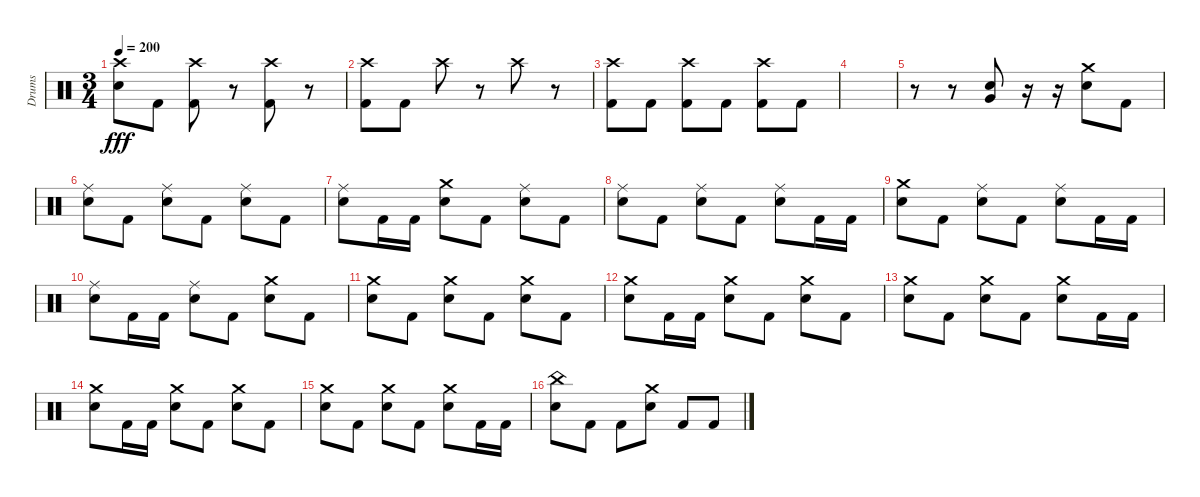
\track ("Drums" "Drums") {instrument percussion}
\staff {score}
\articulation defaults
\ts (3 4)
\tempo 200
\clef neutral
\ks c
("Crash high (hit)" "Snare (hit) 2").8{dy fff} "Kick (hit) 2".8 ("Crash high (hit)" "Kick (hit) 2").8 r.8 ("Crash high (hit)" "Kick (hit) 2").8 r.8 |
("Crash high (hit)" "Kick (hit) 2").8 "Kick (hit) 2".8 "Crash high (hit)".8 r.8 "Crash high (hit)".8 r.8 |
("Crash high (hit)" "Kick (hit) 2").8 "Kick (hit) 2".8 ("Crash high (hit)" "Kick (hit) 2").8 "Kick (hit) 2".8 ("Crash high (hit)" "Kick (hit) 2").8 "Kick (hit) 2".8 |
|
r.8 r.8 ("Very Low Tom (hit)" "Snare (hit) 2").8 r.16 r.16 ("Crash medium (hit)" "Snare (hit) 2").8 "Kick (hit) 2".8 |
("Ride (middle)" "Snare (hit) 2").8 "Kick (hit) 2".8 ("Ride (middle)" "Snare (hit) 2").8 "Kick (hit) 2".8 ("Ride (middle)" "Snare (hit) 2").8 "Kick (hit) 2".8 |
("Ride (middle)" "Snare (hit) 2").8 "Kick (hit) 2".16 "Kick (hit) 2".16 ("Crash medium (hit)" "Snare (hit) 2").8 "Kick (hit) 2".8 ("Ride (middle)" "Snare (hit) 2").8 "Kick (hit) 2".8 |
("Ride (middle)" "Snare (hit) 2").8 "Kick (hit) 2".8 ("Ride (middle)" "Snare (hit) 2").8 "Kick (hit) 2".8 ("Ride (middle)" "Snare (hit) 2").8 "Kick (hit) 2".16 "Kick (hit) 2".16 |
("Crash medium (hit)" "Snare (hit) 2").8 "Kick (hit) 2".8 ("Ride (middle)" "Snare (hit) 2").8 "Kick (hit) 2".8 ("Ride (middle)" "Snare (hit) 2").8 "Kick (hit) 2".16 "Kick (hit) 2".16 |
("Ride (middle)" "Snare (hit) 2").8 "Kick (hit) 2".16 "Kick (hit) 2".16 ("Ride (middle)" "Snare (hit) 2").8 "Kick (hit) 2".8 ("Crash medium (hit)" "Snare (hit) 2").8 "Kick (hit) 2".8 |
("Crash medium (hit)" "Snare (hit) 2").8 "Kick (hit) 2".8 ("Crash medium (hit)" "Snare (hit) 2").8 "Kick (hit) 2".8 ("Crash medium (hit)" "Snare (hit) 2").8 "Kick (hit) 2".8 |
("Crash medium (hit)" "Snare (hit) 2").8 "Kick (hit) 2".16 "Kick (hit) 2".16 ("Crash medium (hit)" "Snare (hit) 2").8 "Kick (hit) 2".8 ("Crash medium (hit)" "Snare (hit) 2").8 "Kick (hit) 2".8 |
("Crash medium (hit)" "Snare (hit) 2").8 "Kick (hit) 2".8 ("Crash medium (hit)" "Snare (hit) 2").8 "Kick (hit) 2".8 ("Crash medium (hit)" "Snare (hit) 2").8 "Kick (hit) 2".16 "Kick (hit) 2".16 |
("Crash medium (hit)" "Snare (hit) 2").8 "Kick (hit) 2".16 "Kick (hit) 2".16 ("Crash medium (hit)" "Snare (hit) 2").8 "Kick (hit) 2".8 ("Crash medium (hit)" "Snare (hit) 2").8 "Kick (hit) 2".8 |
("Crash medium (hit)" "Snare (hit) 2").8 "Kick (hit) 2".8 ("Crash medium (hit)" "Snare (hit) 2").8 "Kick (hit) 2".8 ("Crash medium (hit)" "Snare (hit) 2").8 "Kick (hit) 2".16 "Kick (hit) 2".16 |
("China (hit)" "Snare (hit) 2").8 "Kick (hit) 2".8 "Kick (hit) 2".8 ("Crash medium (hit)" "Snare (hit) 2").8 "Kick (hit) 2".8 "Kick (hit) 2".8
